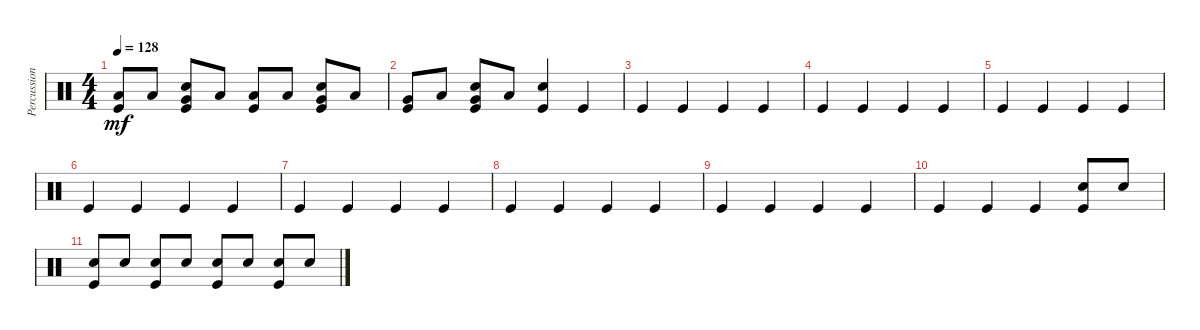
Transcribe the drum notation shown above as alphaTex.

\track ("Percussions" "Percussion") {instrument percussion}
\staff {score}
\articulation defaults
\ts (4 4)
\tempo 128
\clef neutral
\ks c
("Low Floor Tom (hit)" "Kick (hit)").8{dy mf} "Low Floor Tom (hit)".8 ("Very Low Tom (hit)" "Snare (hit) 2" "Kick (hit)").8 "Low Floor Tom (hit)".8 ("Low Floor Tom (hit)" "Kick (hit)").8 "Low Floor Tom (hit)".8 ("Very Low Tom (hit)" "Snare (hit) 2" "Kick (hit)").8 "Low Floor Tom (hit)".8 |
("Very Low Tom (hit)" "Kick (hit)").8 "Low Floor Tom (hit)".8 ("Very Low Tom (hit)" "Snare (hit) 2" "Kick (hit)").8 "Low Floor Tom (hit)".8 ("Snare (hit) 2" "Kick (hit)").4 "Kick (hit)".4 |
"Kick (hit)".4 "Kick (hit)".4 "Kick (hit)".4 "Kick (hit)".4 |
"Kick (hit)".4 "Kick (hit)".4 "Kick (hit)".4 "Kick (hit)".4 |
"Kick (hit)".4 "Kick (hit)".4 "Kick (hit)".4 "Kick (hit)".4 |
"Kick (hit)".4 "Kick (hit)".4 "Kick (hit)".4 "Kick (hit)".4 |
"Kick (hit)".4 "Kick (hit)".4 "Kick (hit)".4 "Kick (hit)".4 |
"Kick (hit)".4 "Kick (hit)".4 "Kick (hit)".4 "Kick (hit)".4 |
"Kick (hit)".4 "Kick (hit)".4 "Kick (hit)".4 "Kick (hit)".4 |
"Kick (hit)".4 "Kick (hit)".4 "Kick (hit)".4 ("Snare (hit) 2" "Kick (hit)").8 "Snare (hit) 2".8 |
("Snare (hit) 2" "Kick (hit)").8 "Snare (hit) 2".8 ("Snare (hit) 2" "Kick (hit)").8 "Snare (hit) 2".8 ("Snare (hit) 2" "Kick (hit)").8 "Snare (hit) 2".8 ("Snare (hit) 2" "Kick (hit)").8 "Snare (hit) 2".8
